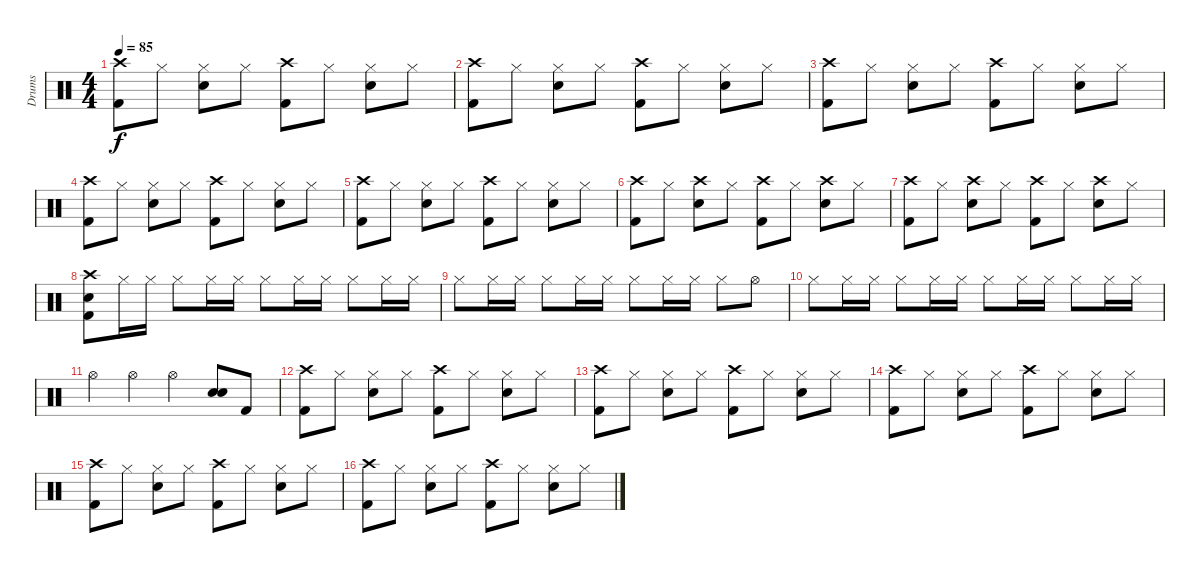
\track ("Drums" "Drums") {instrument percussion}
\staff {score}
\articulation defaults
\ts (4 4)
\tempo 85
\clef neutral
\ks c
("Crash high (hit)" "Kick (hit) 2").8{dy f} "Hi-Hat (closed)".8 ("Hi-Hat (closed)" "Snare (hit) 2").8 "Hi-Hat (closed)".8 ("Crash high (hit)" "Kick (hit) 2").8 "Hi-Hat (closed)".8 ("Hi-Hat (closed)" "Snare (hit) 2").8 "Hi-Hat (closed)".8 |
("Crash high (hit)" "Kick (hit) 2").8 "Hi-Hat (closed)".8 ("Hi-Hat (closed)" "Snare (hit) 2").8 "Hi-Hat (closed)".8 ("Crash high (hit)" "Kick (hit) 2").8 "Hi-Hat (closed)".8 ("Hi-Hat (closed)" "Snare (hit) 2").8 "Hi-Hat (closed)".8 |
("Crash high (hit)" "Kick (hit) 2").8 "Hi-Hat (closed)".8 ("Hi-Hat (closed)" "Snare (hit) 2").8 "Hi-Hat (closed)".8 ("Crash high (hit)" "Kick (hit) 2").8 "Hi-Hat (closed)".8 ("Hi-Hat (closed)" "Snare (hit) 2").8 "Hi-Hat (closed)".8 |
("Crash high (hit)" "Kick (hit) 2").8 "Hi-Hat (closed)".8 ("Hi-Hat (closed)" "Snare (hit) 2").8 "Hi-Hat (closed)".8 ("Crash high (hit)" "Kick (hit) 2").8 "Hi-Hat (closed)".8 ("Hi-Hat (closed)" "Snare (hit) 2").8 "Hi-Hat (closed)".8 |
("Crash high (hit)" "Kick (hit) 2").8 "Hi-Hat (closed)".8 ("Hi-Hat (closed)" "Snare (hit) 2").8 "Hi-Hat (closed)".8 ("Crash high (hit)" "Kick (hit) 2").8 "Hi-Hat (closed)".8 ("Hi-Hat (closed)" "Snare (hit) 2").8 "Hi-Hat (closed)".8 |
("Crash high (hit)" "Kick (hit) 2").8 "Hi-Hat (closed)".8 ("Crash high (hit)" "Snare (hit) 2").8 "Hi-Hat (closed)".8 ("Crash high (hit)" "Kick (hit) 2").8 "Hi-Hat (closed)".8 ("Crash high (hit)" "Snare (hit) 2").8 "Hi-Hat (closed)".8 |
("Crash high (hit)" "Kick (hit) 2").8 "Hi-Hat (closed)".8 ("Crash high (hit)" "Snare (hit) 2").8 "Hi-Hat (closed)".8 ("Crash high (hit)" "Kick (hit) 2").8 "Hi-Hat (closed)".8 ("Crash high (hit)" "Snare (hit) 2").8 "Hi-Hat (closed)".8 |
("Crash high (hit)" "Snare (hit) 2" "Kick (hit) 2").8 "Hi-Hat (closed)".16 "Hi-Hat (closed)".16 "Hi-Hat (closed)".8 "Hi-Hat (closed)".16 "Hi-Hat (closed)".16 "Hi-Hat (closed)".8 "Hi-Hat (closed)".16 "Hi-Hat (closed)".16 "Hi-Hat (closed)".8 "Hi-Hat (closed)".16 "Hi-Hat (closed)".16 |
"Hi-Hat (closed)".8 "Hi-Hat (closed)".16 "Hi-Hat (closed)".16 "Hi-Hat (closed)".8 "Hi-Hat (closed)".16 "Hi-Hat (closed)".16 "Hi-Hat (closed)".8 "Hi-Hat (closed)".16 "Hi-Hat (closed)".16 "Hi-Hat (closed)".8 "Hi-Hat (open)".8 |
"Hi-Hat (closed)".8 "Hi-Hat (closed)".16 "Hi-Hat (closed)".16 "Hi-Hat (closed)".8 "Hi-Hat (closed)".16 "Hi-Hat (closed)".16 "Hi-Hat (closed)".8 "Hi-Hat (closed)".16 "Hi-Hat (closed)".16 "Hi-Hat (closed)".8 "Hi-Hat (closed)".16 "Hi-Hat (closed)".16 |
"Hi-Hat (open)".4 "Hi-Hat (open)".4 "Hi-Hat (open)".4 ("Snare (hit) 2" "Snare (hit) 2").8{bd 480} "Kick (hit) 2".8 |
("Crash high (hit)" "Kick (hit) 2").8 "Hi-Hat (closed)".8 ("Hi-Hat (closed)" "Snare (hit) 2").8 "Hi-Hat (closed)".8 ("Crash high (hit)" "Kick (hit) 2").8 "Hi-Hat (closed)".8 ("Hi-Hat (closed)" "Snare (hit) 2").8 "Hi-Hat (closed)".8 |
("Crash high (hit)" "Kick (hit) 2").8 "Hi-Hat (closed)".8 ("Hi-Hat (closed)" "Snare (hit) 2").8 "Hi-Hat (closed)".8 ("Crash high (hit)" "Kick (hit) 2").8 "Hi-Hat (closed)".8 ("Hi-Hat (closed)" "Snare (hit) 2").8 "Hi-Hat (closed)".8 |
("Crash high (hit)" "Kick (hit) 2").8 "Hi-Hat (closed)".8 ("Hi-Hat (closed)" "Snare (hit) 2").8 "Hi-Hat (closed)".8 ("Crash high (hit)" "Kick (hit) 2").8 "Hi-Hat (closed)".8 ("Hi-Hat (closed)" "Snare (hit) 2").8 "Hi-Hat (closed)".8 |
("Crash high (hit)" "Kick (hit) 2").8 "Hi-Hat (closed)".8 ("Hi-Hat (closed)" "Snare (hit) 2").8 "Hi-Hat (closed)".8 ("Crash high (hit)" "Kick (hit) 2").8 "Hi-Hat (closed)".8 ("Hi-Hat (closed)" "Snare (hit) 2").8 "Hi-Hat (closed)".8 |
("Crash high (hit)" "Kick (hit) 2").8 "Hi-Hat (closed)".8 ("Hi-Hat (closed)" "Snare (hit) 2").8 "Hi-Hat (closed)".8 ("Crash high (hit)" "Kick (hit) 2").8 "Hi-Hat (closed)".8 ("Hi-Hat (closed)" "Snare (hit) 2").8 "Hi-Hat (closed)".8
